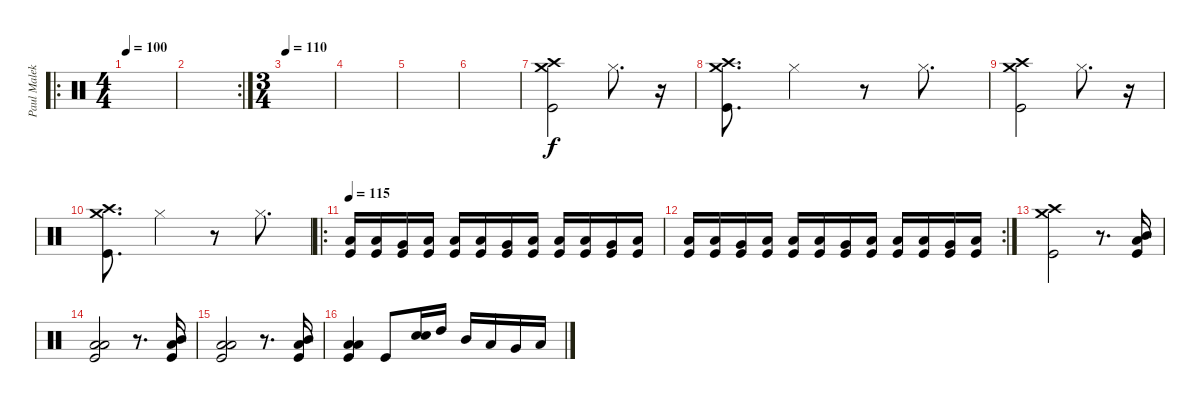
\track ("Paul Malek" "Paul Malek") {instrument percussion}
\staff {score}
\articulation defaults
\ro
\ts (4 4)
\tempo 100
\tempo 110
\tempo 100
\clef neutral
\ks c
|
\rc 2
|
\ts (3 4)
\tempo 110
|
|
|
|
("Crash medium (hit)" "Crash high (hit)" "Kick (hit)").2 "Hi-Hat (closed)".8{d} r.16 |
("Crash medium (hit)" "Crash high (hit)" "Kick (hit)").8{d} "Hi-Hat (closed)".4 r.8 "Hi-Hat (closed)".8{d} |
("Crash medium (hit)" "Crash high (hit)" "Kick (hit)").2 "Hi-Hat (closed)".8{d} r.16 |
("Crash medium (hit)" "Crash high (hit)" "Kick (hit)").8{d} "Hi-Hat (closed)".4 r.8 "Hi-Hat (closed)".8{d} |
\ro
\tempo 115
("Low Floor Tom (hit)" "Kick (hit)").16 ("Low Tom (hit)" "Kick (hit)").16 ("Very Low Tom (hit)" "Kick (hit)").16 ("Low Tom (hit)" "Kick (hit)").16 ("Low Floor Tom (hit)" "Kick (hit)").16 ("Low Tom (hit)" "Kick (hit)").16 ("Very Low Tom (hit)" "Kick (hit)").16 ("Low Tom (hit)" "Kick (hit)").16 ("Low Floor Tom (hit)" "Kick (hit)").16 ("Low Tom (hit)" "Kick (hit)").16 ("Very Low Tom (hit)" "Kick (hit)").16 ("Low Tom (hit)" "Kick (hit)").16 |
\rc 2
("Low Floor Tom (hit)" "Kick (hit)").16 ("Low Tom (hit)" "Kick (hit)").16 ("Very Low Tom (hit)" "Kick (hit)").16 ("Low Tom (hit)" "Kick (hit)").16 ("Low Floor Tom (hit)" "Kick (hit)").16 ("Low Tom (hit)" "Kick (hit)").16 ("Very Low Tom (hit)" "Kick (hit)").16 ("Low Tom (hit)" "Kick (hit)").16 ("Low Floor Tom (hit)" "Kick (hit)").16 ("Low Tom (hit)" "Kick (hit)").16 ("Very Low Tom (hit)" "Kick (hit)").16 ("Low Tom (hit)" "Kick (hit)").16 |
("Crash medium (hit)" "Crash high (hit)" "Kick (hit)").2 r.8{d} ("Low Tom (hit)" "Mid Tom (hit)" "Kick (hit)").16 |
("Low Floor Tom (hit)" "Low Tom (hit)" "Kick (hit)").2 r.8{d} ("Low Tom (hit)" "Mid Tom (hit)" "Kick (hit)").16 |
("Low Floor Tom (hit)" "Low Tom (hit)" "Kick (hit)").2 r.8{d} ("Low Tom (hit)" "Mid Tom (hit)" "Kick (hit)").16 |
("Low Floor Tom (hit)" "Low Tom (hit)" "Kick (hit)").4 "Kick (hit)".8 ("Electric Snare (hit)" "Snare (hit) 2").16 "High Tom (hit)".16 "Mid Tom (hit)".16 "Low Tom (hit)".16 "Very Low Tom (hit)".16 "Low Floor Tom (hit)".16
